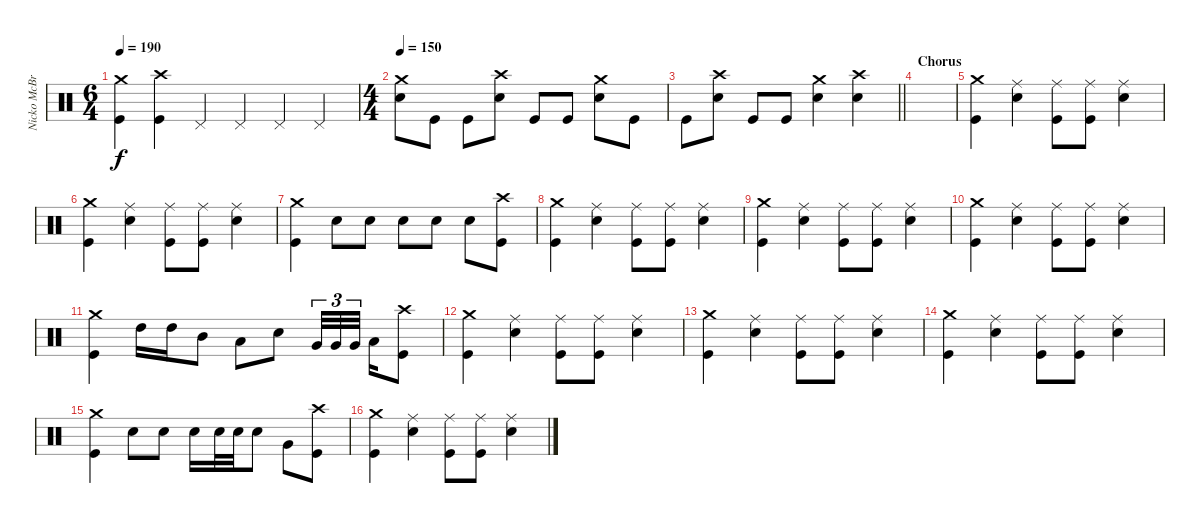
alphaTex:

\track ("Nicko McBrain" "Nicko McBr") {instrument percussion}
\staff {score}
\articulation defaults
\ts (6 4)
\tempo 190
\clef neutral
\ks c
("Crash medium (hit)" "Kick (hit)").4{dy f} ("Crash high (hit)" "Kick (hit)").4 "Pedal Hi-Hat (hit)".4 "Pedal Hi-Hat (hit)".4 "Pedal Hi-Hat (hit)".4 "Pedal Hi-Hat (hit)".4 |
\ts (4 4)
\tempo 150
("Crash medium (hit)" "Electric Snare (hit)").8 "Kick (hit)".8 "Kick (hit)".8 ("Crash high (hit)" "Electric Snare (hit)").8 "Kick (hit)".8 "Kick (hit)".8 ("Crash medium (hit)" "Electric Snare (hit)").8 "Kick (hit)".8 |
\barLineRight lightlight "Kick (hit)".8
("Crash high (hit)" "Electric Snare (hit)").8 "Kick (hit)".8 "Kick (hit)".8 ("Crash medium (hit)" "Electric Snare (hit)").4 ("Crash high (hit)" "Electric Snare (hit)").4 |
\section ("" "Chorus")
|
("Kick (hit)" "Crash medium (hit)").4 ("Electric Snare (hit)" "Ride (middle)").4 ("Kick (hit)" "Ride (middle)").8 ("Kick (hit)" "Ride (middle)").8 ("Electric Snare (hit)" "Ride (middle)").4 |
("Kick (hit)" "Crash medium (hit)").4 ("Electric Snare (hit)" "Ride (middle)").4 ("Kick (hit)" "Ride (middle)").8 ("Kick (hit)" "Ride (middle)").8 ("Electric Snare (hit)" "Ride (middle)").4 |
("Kick (hit)" "Crash medium (hit)").4 "Electric Snare (hit)".8 "Electric Snare (hit)".8 "Electric Snare (hit)".8 "Electric Snare (hit)".8 "Electric Snare (hit)".8 ("Kick (hit)" "Crash high (hit)").8 |
("Kick (hit)" "Crash medium (hit)").4 ("Electric Snare (hit)" "Ride (middle)").4 ("Kick (hit)" "Ride (middle)").8 ("Kick (hit)" "Ride (middle)").8 ("Electric Snare (hit)" "Ride (middle)").4 |
("Kick (hit)" "Crash medium (hit)").4 ("Electric Snare (hit)" "Ride (middle)").4 ("Kick (hit)" "Ride (middle)").8 ("Kick (hit)" "Ride (middle)").8 ("Electric Snare (hit)" "Ride (middle)").4 |
("Kick (hit)" "Crash medium (hit)").4 ("Electric Snare (hit)" "Ride (middle)").4 ("Kick (hit)" "Ride (middle)").8 ("Kick (hit)" "Ride (middle)").8 ("Electric Snare (hit)" "Ride (middle)").4 |
("Kick (hit)" "Crash medium (hit)").4 "High Tom (hit)".16 "High Tom (hit)".16 "Mid Tom (hit)".8 "Low Tom (hit)".8 "Electric Snare (hit)".8 "Very Low Tom (hit)".32{tu (3 2)} "Very Low Tom (hit)".32{tu (3 2)} "Very Low Tom (hit)".32{tu (3 2) beam splitsecondary} "Low Floor Tom (hit)".16 ("Kick (hit)" "Crash high (hit)").8 |
("Kick (hit)" "Crash medium (hit)").4 ("Electric Snare (hit)" "Ride (middle)").4 ("Kick (hit)" "Ride (middle)").8 ("Kick (hit)" "Ride (middle)").8 ("Electric Snare (hit)" "Ride (middle)").4 |
("Kick (hit)" "Crash medium (hit)").4 ("Electric Snare (hit)" "Ride (middle)").4 ("Kick (hit)" "Ride (middle)").8 ("Kick (hit)" "Ride (middle)").8 ("Electric Snare (hit)" "Ride (middle)").4 |
("Kick (hit)" "Crash medium (hit)").4 ("Electric Snare (hit)" "Ride (middle)").4 ("Kick (hit)" "Ride (middle)").8 ("Kick (hit)" "Ride (middle)").8 ("Electric Snare (hit)" "Ride (middle)").4 |
("Kick (hit)" "Crash medium (hit)").4 "Electric Snare (hit)".8 "Electric Snare (hit)".8 "Electric Snare (hit)".16 "Electric Snare (hit)".32 "Electric Snare (hit)".32 "Electric Snare (hit)".8 "Very Low Tom (hit)".8 ("Kick (hit)" "Crash high (hit)").8 |
("Kick (hit)" "Crash medium (hit)").4 ("Electric Snare (hit)" "Ride (middle)").4 ("Kick (hit)" "Ride (middle)").8 ("Kick (hit)" "Ride (middle)").8 ("Electric Snare (hit)" "Ride (middle)").4
